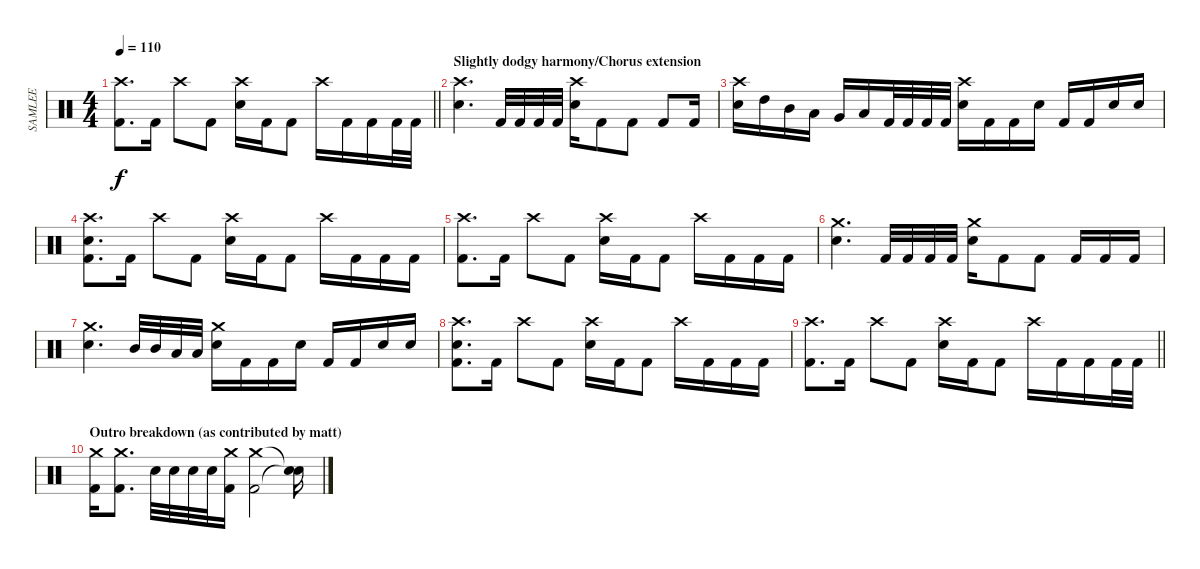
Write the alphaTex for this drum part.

\track ("SAMLEE" "SAMLEE") {instrument percussion}
\staff {score}
\articulation defaults
\ts (4 4)
\tempo 110
\clef neutral
\barLineRight lightlight
\ks c
("Crash high (hit)" "Kick (hit) 2").8{d dy f} "Kick (hit) 2".16 "Crash high (hit)".8 "Kick (hit) 2".8 ("Crash high (hit)" "Snare (hit) 2").16 "Kick (hit) 2".16 "Kick (hit) 2".8 "Crash high (hit)".16 "Kick (hit) 2".16 "Kick (hit) 2".16 "Kick (hit) 2".32 "Kick (hit) 2".32 |
\section ("" "Slightly dodgy harmony/Chorus extension")
("Crash high (hit)" "Snare (hit) 2").4{d} "Kick (hit) 2".32 "Kick (hit) 2".32 "Kick (hit) 2".32 "Kick (hit) 2".32 ("Crash high (hit)" "Snare (hit) 2").16 "Kick (hit) 2".8 "Kick (hit) 2".8 "Kick (hit) 2".8 "Kick (hit) 2".16 |
("Crash high (hit)" "Snare (hit) 2").16 "High Tom (hit)".16 "Mid Tom (hit)".16 "Low Tom (hit)".16 "Very Low Tom (hit)".16 "Low Floor Tom (hit)".16 "Kick (hit) 2".32 "Kick (hit) 2".32 "Kick (hit) 2".32 "Kick (hit) 2".32 ("Crash high (hit)" "Snare (hit) 2").16 "Kick (hit) 2".16 "Kick (hit) 2".16 "Snare (hit) 2".16 "Kick (hit) 2".16 "Kick (hit) 2".16 "Snare (hit) 2".16 "Snare (hit) 2".16 |
("Crash high (hit)" "Snare (hit) 2" "Kick (hit) 2").8{d} "Kick (hit) 2".16 "Crash high (hit)".8 "Kick (hit) 2".8 ("Crash high (hit)" "Snare (hit) 2").16 "Kick (hit) 2".16 "Kick (hit) 2".8 "Crash high (hit)".16 "Kick (hit) 2".16 "Kick (hit) 2".16 "Kick (hit) 2".16 |
("Crash high (hit)" "Kick (hit) 2").8{d} "Kick (hit) 2".16 "Crash high (hit)".8 "Kick (hit) 2".8 ("Crash high (hit)" "Snare (hit) 2").16 "Kick (hit) 2".16 "Kick (hit) 2".8 "Crash high (hit)".16 "Kick (hit) 2".16 "Kick (hit) 2".16 "Kick (hit) 2".16 |
("Crash medium (hit)" "Snare (hit) 2").4{d} "Kick (hit) 2".32 "Kick (hit) 2".32 "Kick (hit) 2".32 "Kick (hit) 2".32 ("Crash medium (hit)" "Snare (hit) 2").16 "Kick (hit) 2".8 "Kick (hit) 2".8 "Kick (hit) 2".16 "Kick (hit) 2".16 "Kick (hit) 2".16 |
("Crash medium (hit)" "Snare (hit) 2").4{d} "Mid Tom (hit)".32 "Mid Tom (hit)".32 "Low Tom (hit)".32 "Low Tom (hit)".32 ("Crash medium (hit)" "Snare (hit) 2").16 "Kick (hit) 2".16 "Kick (hit) 2".16 "Snare (hit) 2".16 "Kick (hit) 2".16 "Kick (hit) 2".16 "Snare (hit) 2".16 "Snare (hit) 2".16 |
("Crash high (hit)" "Snare (hit) 2" "Kick (hit) 2").8{d} "Kick (hit) 2".16 "Crash high (hit)".8 "Kick (hit) 2".8 ("Crash high (hit)" "Snare (hit) 2").16 "Kick (hit) 2".16 "Kick (hit) 2".8 "Crash high (hit)".16 "Kick (hit) 2".16 "Kick (hit) 2".16 "Kick (hit) 2".16 |
\barLineRight lightlight
("Crash high (hit)" "Kick (hit) 2").8{d} "Kick (hit) 2".16 "Crash high (hit)".8 "Kick (hit) 2".8 ("Crash high (hit)" "Snare (hit) 2").16 "Kick (hit) 2".16 "Kick (hit) 2".8 "Crash high (hit)".16 "Kick (hit) 2".16 "Kick (hit) 2".16 "Kick (hit) 2".32 "Kick (hit) 2".32 |
\section ("" "Outro breakdown (as contributed by matt)")
("Crash medium (hit)" "Kick (hit) 2").16 ("Crash medium (hit)" "Kick (hit) 2").8{d} "Snare (hit) 2".32 "Snare (hit) 2".32 "Snare (hit) 2".32 "Snare (hit) 2".32 ("Crash medium (hit)" "Kick (hit) 2").16 ("Crash medium (hit)" "Kick (hit) 2").2 ("Snare (hit)"{t} "Snare (hit)"{t}).16
